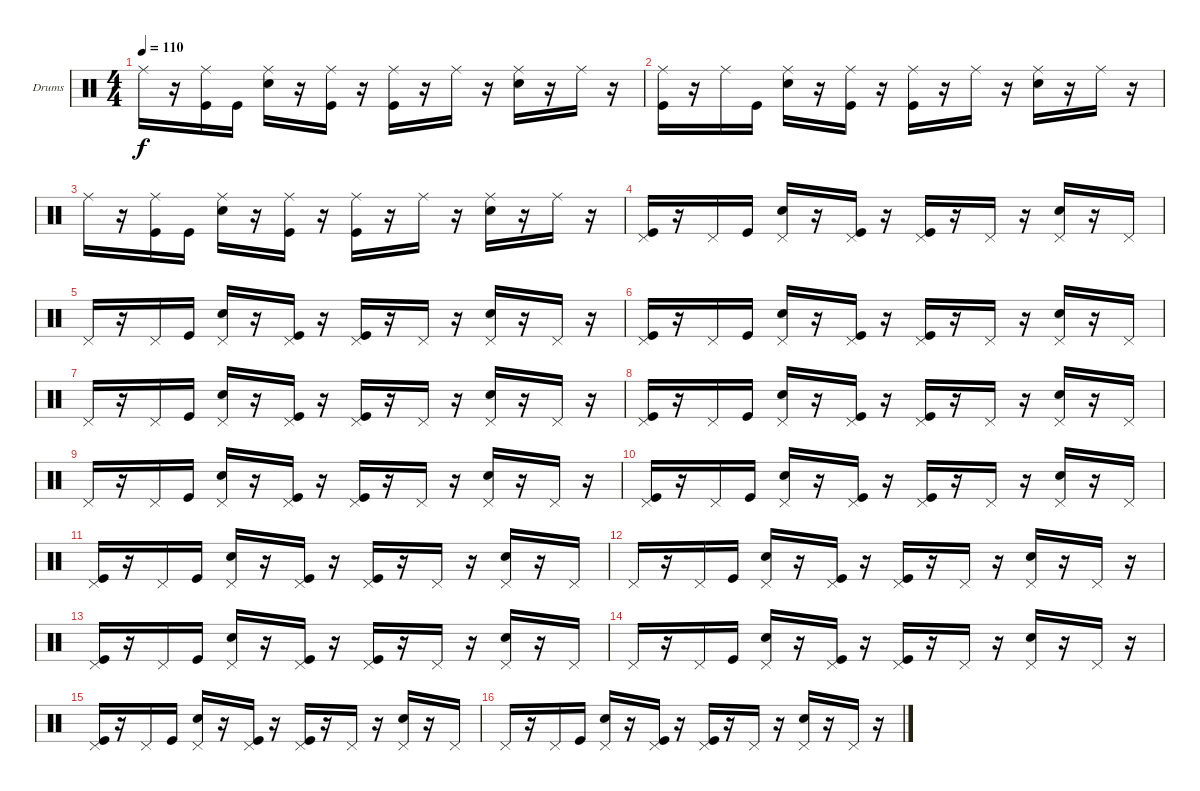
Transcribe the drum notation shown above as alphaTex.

\defaultSystemsLayout 4
\bracketExtendMode groupsimilarinstruments
\firstSystemTrackNameOrientation horizontal
\otherSystemsTrackNameOrientation horizontal
\track ("Drumkit" "Drums") {instrument percussion}
\staff {score}
\articulation defaults
\ts (4 4)
\tempo 110
\clef neutral
\ks c "Ride (middle)".16{dy f}
r.16 ("Ride (middle)" "Kick (hit)").16 "Kick (hit)".16 ("Ride (middle)" "Snare (hit) 2").16 r.16 ("Ride (middle)" "Kick (hit)").16 r.16 ("Ride (middle)" "Kick (hit)").16 r.16 "Ride (middle)".16 r.16 ("Ride (middle)" "Snare (hit) 2").16 r.16 "Ride (middle)".16 r.16 |
("Kick (hit)" "Ride (middle)").16 r.16 "Ride (middle)".16 "Kick (hit)".16 ("Snare (hit) 2" "Ride (middle)").16 r.16 ("Kick (hit)" "Ride (middle)").16 r.16 ("Kick (hit)" "Ride (middle)").16 r.16 "Ride (middle)".16 r.16 ("Ride (middle)" "Snare (hit) 2").16 r.16 "Ride (middle)".16 r.16 |
"Ride (middle)".16 r.16 ("Ride (middle)" "Kick (hit)").16 "Kick (hit)".16 ("Ride (middle)" "Snare (hit) 2").16 r.16 ("Ride (middle)" "Kick (hit)").16 r.16 ("Ride (middle)" "Kick (hit)").16 r.16 "Ride (middle)".16 r.16 ("Ride (middle)" "Snare (hit) 2").16 r.16 "Ride (middle)".16 r.16 |
("Kick (hit)" "Pedal Hi-Hat (hit)").16 r.16 "Pedal Hi-Hat (hit)".16 "Kick (hit)".16 ("Snare (hit) 2" "Pedal Hi-Hat (hit)").16 r.16 ("Kick (hit)" "Pedal Hi-Hat (hit)").16 r.16 ("Kick (hit)" "Pedal Hi-Hat (hit)").16 r.16 "Pedal Hi-Hat (hit)".16 r.16 ("Snare (hit) 2" "Pedal Hi-Hat (hit)").16 r.16 "Pedal Hi-Hat (hit)".16 |
"Pedal Hi-Hat (hit)".16 r.16 "Pedal Hi-Hat (hit)".16 "Kick (hit)".16 ("Snare (hit) 2" "Pedal Hi-Hat (hit)").16 r.16 ("Kick (hit)" "Pedal Hi-Hat (hit)").16 r.16 ("Kick (hit)" "Pedal Hi-Hat (hit)").16 r.16 "Pedal Hi-Hat (hit)".16 r.16 ("Snare (hit) 2" "Pedal Hi-Hat (hit)").16 r.16 "Pedal Hi-Hat (hit)".16 r.16 |
("Kick (hit)" "Pedal Hi-Hat (hit)").16 r.16 "Pedal Hi-Hat (hit)".16 "Kick (hit)".16 ("Snare (hit) 2" "Pedal Hi-Hat (hit)").16 r.16 ("Kick (hit)" "Pedal Hi-Hat (hit)").16 r.16 ("Kick (hit)" "Pedal Hi-Hat (hit)").16 r.16 "Pedal Hi-Hat (hit)".16 r.16 ("Snare (hit) 2" "Pedal Hi-Hat (hit)").16 r.16 "Pedal Hi-Hat (hit)".16 |
"Pedal Hi-Hat (hit)".16 r.16 "Pedal Hi-Hat (hit)".16 "Kick (hit)".16 ("Snare (hit) 2" "Pedal Hi-Hat (hit)").16 r.16 ("Kick (hit)" "Pedal Hi-Hat (hit)").16 r.16 ("Kick (hit)" "Pedal Hi-Hat (hit)").16 r.16 "Pedal Hi-Hat (hit)".16 r.16 ("Snare (hit) 2" "Pedal Hi-Hat (hit)").16 r.16 "Pedal Hi-Hat (hit)".16 r.16 |
("Kick (hit)" "Pedal Hi-Hat (hit)").16 r.16 "Pedal Hi-Hat (hit)".16 "Kick (hit)".16 ("Snare (hit) 2" "Pedal Hi-Hat (hit)").16 r.16 ("Kick (hit)" "Pedal Hi-Hat (hit)").16 r.16 ("Kick (hit)" "Pedal Hi-Hat (hit)").16 r.16 "Pedal Hi-Hat (hit)".16 r.16 ("Snare (hit) 2" "Pedal Hi-Hat (hit)").16 r.16 "Pedal Hi-Hat (hit)".16 |
"Pedal Hi-Hat (hit)".16 r.16 "Pedal Hi-Hat (hit)".16 "Kick (hit)".16 ("Snare (hit) 2" "Pedal Hi-Hat (hit)").16 r.16 ("Kick (hit)" "Pedal Hi-Hat (hit)").16 r.16 ("Kick (hit)" "Pedal Hi-Hat (hit)").16 r.16 "Pedal Hi-Hat (hit)".16 r.16 ("Snare (hit) 2" "Pedal Hi-Hat (hit)").16 r.16 "Pedal Hi-Hat (hit)".16 r.16 |
("Kick (hit)" "Pedal Hi-Hat (hit)").16 r.16 "Pedal Hi-Hat (hit)".16 "Kick (hit)".16 ("Snare (hit) 2" "Pedal Hi-Hat (hit)").16 r.16 ("Kick (hit)" "Pedal Hi-Hat (hit)").16 r.16 ("Kick (hit)" "Pedal Hi-Hat (hit)").16 r.16 "Pedal Hi-Hat (hit)".16 r.16 ("Snare (hit) 2" "Pedal Hi-Hat (hit)").16 r.16 "Pedal Hi-Hat (hit)".16 |
("Kick (hit)" "Pedal Hi-Hat (hit)").16 r.16 "Pedal Hi-Hat (hit)".16 "Kick (hit)".16 ("Snare (hit) 2" "Pedal Hi-Hat (hit)").16 r.16 ("Kick (hit)" "Pedal Hi-Hat (hit)").16 r.16 ("Kick (hit)" "Pedal Hi-Hat (hit)").16 r.16 "Pedal Hi-Hat (hit)".16 r.16 ("Snare (hit) 2" "Pedal Hi-Hat (hit)").16 r.16 "Pedal Hi-Hat (hit)".16 |
"Pedal Hi-Hat (hit)".16 r.16 "Pedal Hi-Hat (hit)".16 "Kick (hit)".16 ("Snare (hit) 2" "Pedal Hi-Hat (hit)").16 r.16 ("Kick (hit)" "Pedal Hi-Hat (hit)").16 r.16 ("Kick (hit)" "Pedal Hi-Hat (hit)").16 r.16 "Pedal Hi-Hat (hit)".16 r.16 ("Snare (hit) 2" "Pedal Hi-Hat (hit)").16 r.16 "Pedal Hi-Hat (hit)".16 r.16 |
("Kick (hit)" "Pedal Hi-Hat (hit)").16 r.16 "Pedal Hi-Hat (hit)".16 "Kick (hit)".16 ("Snare (hit) 2" "Pedal Hi-Hat (hit)").16 r.16 ("Kick (hit)" "Pedal Hi-Hat (hit)").16 r.16 ("Kick (hit)" "Pedal Hi-Hat (hit)").16 r.16 "Pedal Hi-Hat (hit)".16 r.16 ("Snare (hit) 2" "Pedal Hi-Hat (hit)").16 r.16 "Pedal Hi-Hat (hit)".16 |
"Pedal Hi-Hat (hit)".16 r.16 "Pedal Hi-Hat (hit)".16 "Kick (hit)".16 ("Snare (hit) 2" "Pedal Hi-Hat (hit)").16 r.16 ("Kick (hit)" "Pedal Hi-Hat (hit)").16 r.16 ("Kick (hit)" "Pedal Hi-Hat (hit)").16 r.16 "Pedal Hi-Hat (hit)".16 r.16 ("Snare (hit) 2" "Pedal Hi-Hat (hit)").16 r.16 "Pedal Hi-Hat (hit)".16 r.16 |
("Kick (hit)" "Pedal Hi-Hat (hit)").16 r.16 "Pedal Hi-Hat (hit)".16 "Kick (hit)".16 ("Snare (hit) 2" "Pedal Hi-Hat (hit)").16 r.16 ("Kick (hit)" "Pedal Hi-Hat (hit)").16 r.16 ("Kick (hit)" "Pedal Hi-Hat (hit)").16 r.16 "Pedal Hi-Hat (hit)".16 r.16 ("Snare (hit) 2" "Pedal Hi-Hat (hit)").16 r.16 "Pedal Hi-Hat (hit)".16 |
"Pedal Hi-Hat (hit)".16 r.16 "Pedal Hi-Hat (hit)".16 "Kick (hit)".16 ("Snare (hit) 2" "Pedal Hi-Hat (hit)").16 r.16 ("Kick (hit)" "Pedal Hi-Hat (hit)").16 r.16 ("Kick (hit)" "Pedal Hi-Hat (hit)").16 r.16 "Pedal Hi-Hat (hit)".16 r.16 ("Snare (hit) 2" "Pedal Hi-Hat (hit)").16 r.16 "Pedal Hi-Hat (hit)".16 r.16
